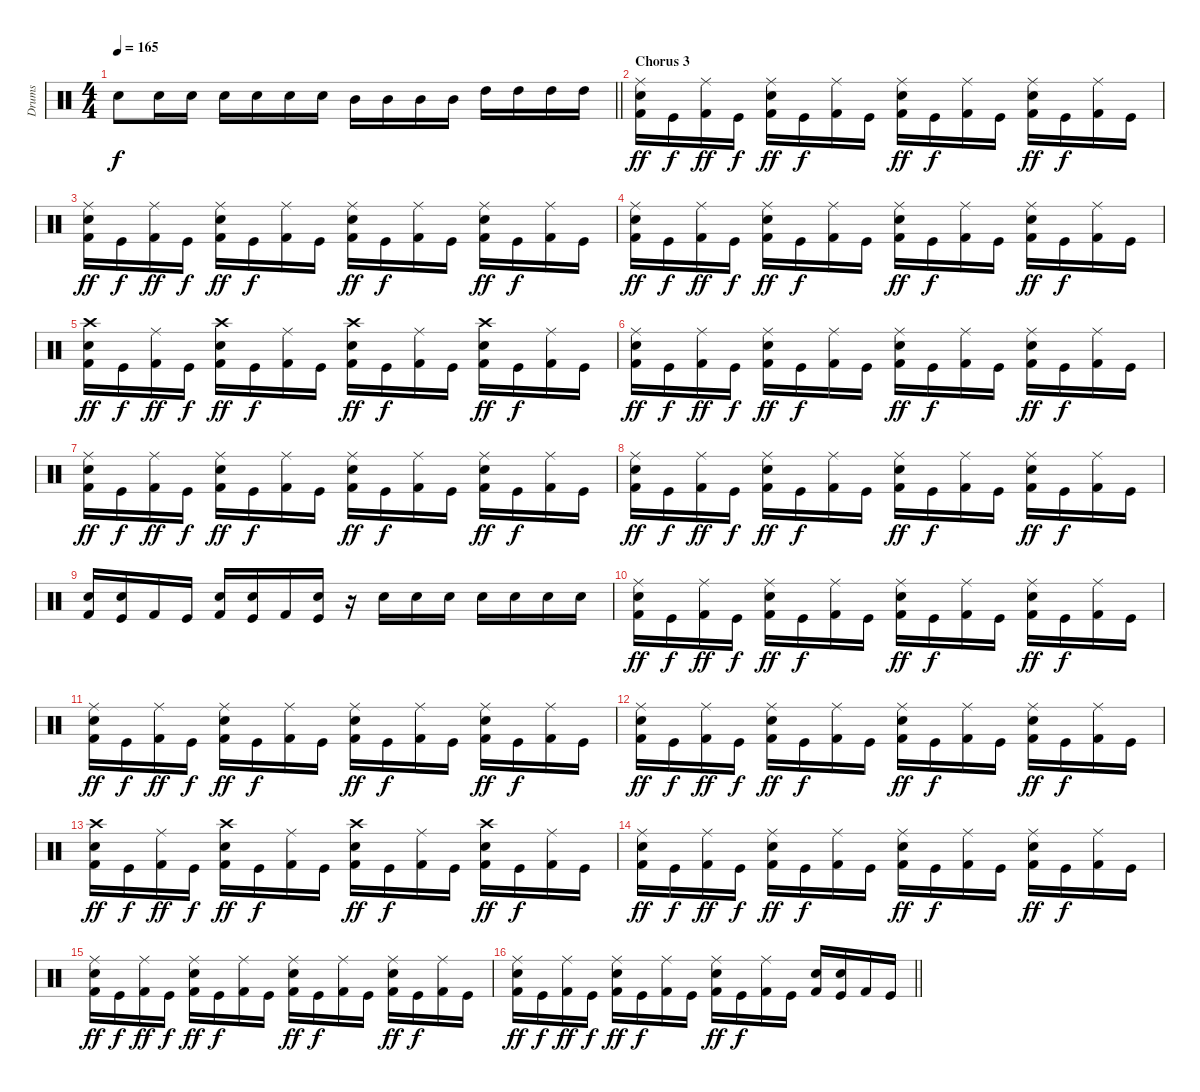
\track ("Drums" "Drums") {instrument percussion}
\staff {score}
\articulation defaults
\ts (4 4)
\tempo 165
\clef neutral
\barLineRight lightlight
\ks c "Electric Snare (hit)".8{dy f} "Electric Snare (hit)".16 "Electric Snare (hit)".16 "Electric Snare (hit)".16 "Electric Snare (hit)".16 "Electric Snare (hit)".16 "Electric Snare (hit)".16 "Mid Tom (hit)".16 "Mid Tom (hit)".16 "Mid Tom (hit)".16 "Mid Tom (hit)".16 "High Tom (hit)".16 "High Tom (hit)".16 "High Tom (hit)".16 "High Tom (hit)".16
|
\section ("" "Chorus 3")
("Ride (middle)" "Snare (hit) 2" "Kick (hit) 2").16{dy ff} "Kick (hit)".16{dy f} ("Ride (middle)" "Kick (hit) 2").16{dy ff} "Kick (hit)".16{dy f} ("Ride (middle)" "Snare (hit) 2" "Kick (hit) 2").16{dy ff} "Kick (hit)".16{dy f} ("Ride (middle)" "Kick (hit) 2").16 "Kick (hit)".16 ("Ride (middle)" "Snare (hit) 2" "Kick (hit) 2").16{dy ff} "Kick (hit)".16{dy f} ("Ride (middle)" "Kick (hit) 2").16 "Kick (hit)".16 ("Ride (middle)" "Snare (hit) 2" "Kick (hit) 2").16{dy ff} "Kick (hit)".16{dy f} ("Ride (middle)" "Kick (hit) 2").16 "Kick (hit)".16 |
("Ride (middle)" "Snare (hit) 2" "Kick (hit) 2").16{dy ff} "Kick (hit)".16{dy f} ("Ride (middle)" "Kick (hit) 2").16{dy ff} "Kick (hit)".16{dy f} ("Ride (middle)" "Snare (hit) 2" "Kick (hit) 2").16{dy ff} "Kick (hit)".16{dy f} ("Ride (middle)" "Kick (hit) 2").16 "Kick (hit)".16 ("Ride (middle)" "Snare (hit) 2" "Kick (hit) 2").16{dy ff} "Kick (hit)".16{dy f} ("Ride (middle)" "Kick (hit) 2").16 "Kick (hit)".16 ("Ride (middle)" "Snare (hit) 2" "Kick (hit) 2").16{dy ff} "Kick (hit)".16{dy f} ("Ride (middle)" "Kick (hit) 2").16 "Kick (hit)".16 |
("Ride (middle)" "Snare (hit) 2" "Kick (hit) 2").16{dy ff} "Kick (hit)".16{dy f} ("Ride (middle)" "Kick (hit) 2").16{dy ff} "Kick (hit)".16{dy f} ("Ride (middle)" "Snare (hit) 2" "Kick (hit) 2").16{dy ff} "Kick (hit)".16{dy f} ("Ride (middle)" "Kick (hit) 2").16 "Kick (hit)".16 ("Ride (middle)" "Snare (hit) 2" "Kick (hit) 2").16{dy ff} "Kick (hit)".16{dy f} ("Ride (middle)" "Kick (hit) 2").16 "Kick (hit)".16 ("Ride (middle)" "Snare (hit) 2" "Kick (hit) 2").16{dy ff} "Kick (hit)".16{dy f} ("Ride (middle)" "Kick (hit) 2").16 "Kick (hit)".16 |
("Crash high (hit)" "Snare (hit) 2" "Kick (hit) 2").16{dy ff} "Kick (hit)".16{dy f} ("Ride (middle)" "Kick (hit) 2").16{dy ff} "Kick (hit)".16{dy f} ("Crash high (hit)" "Snare (hit) 2" "Kick (hit) 2").16{dy ff} "Kick (hit)".16{dy f} ("Ride (middle)" "Kick (hit) 2").16 "Kick (hit)".16 ("Crash high (hit)" "Snare (hit) 2" "Kick (hit) 2").16{dy ff} "Kick (hit)".16{dy f} ("Ride (middle)" "Kick (hit) 2").16 "Kick (hit)".16 ("Crash high (hit)" "Snare (hit) 2" "Kick (hit) 2").16{dy ff} "Kick (hit)".16{dy f} ("Ride (middle)" "Kick (hit) 2").16 "Kick (hit)".16 |
("Ride (middle)" "Snare (hit) 2" "Kick (hit) 2").16{dy ff} "Kick (hit)".16{dy f} ("Ride (middle)" "Kick (hit) 2").16{dy ff} "Kick (hit)".16{dy f} ("Ride (middle)" "Snare (hit) 2" "Kick (hit) 2").16{dy ff} "Kick (hit)".16{dy f} ("Ride (middle)" "Kick (hit) 2").16 "Kick (hit)".16 ("Ride (middle)" "Snare (hit) 2" "Kick (hit) 2").16{dy ff} "Kick (hit)".16{dy f} ("Ride (middle)" "Kick (hit) 2").16 "Kick (hit)".16 ("Ride (middle)" "Snare (hit) 2" "Kick (hit) 2").16{dy ff} "Kick (hit)".16{dy f} ("Ride (middle)" "Kick (hit) 2").16 "Kick (hit)".16 |
("Ride (middle)" "Snare (hit) 2" "Kick (hit) 2").16{dy ff} "Kick (hit)".16{dy f} ("Ride (middle)" "Kick (hit) 2").16{dy ff} "Kick (hit)".16{dy f} ("Ride (middle)" "Snare (hit) 2" "Kick (hit) 2").16{dy ff} "Kick (hit)".16{dy f} ("Ride (middle)" "Kick (hit) 2").16 "Kick (hit)".16 ("Ride (middle)" "Snare (hit) 2" "Kick (hit) 2").16{dy ff} "Kick (hit)".16{dy f} ("Ride (middle)" "Kick (hit) 2").16 "Kick (hit)".16 ("Ride (middle)" "Snare (hit) 2" "Kick (hit) 2").16{dy ff} "Kick (hit)".16{dy f} ("Ride (middle)" "Kick (hit) 2").16 "Kick (hit)".16 |
("Ride (middle)" "Snare (hit) 2" "Kick (hit) 2").16{dy ff} "Kick (hit)".16{dy f} ("Ride (middle)" "Kick (hit) 2").16{dy ff} "Kick (hit)".16{dy f} ("Ride (middle)" "Snare (hit) 2" "Kick (hit) 2").16{dy ff} "Kick (hit)".16{dy f} ("Ride (middle)" "Kick (hit) 2").16 "Kick (hit)".16 ("Ride (middle)" "Snare (hit) 2" "Kick (hit) 2").16{dy ff} "Kick (hit)".16{dy f} ("Ride (middle)" "Kick (hit) 2").16 "Kick (hit)".16 ("Ride (middle)" "Snare (hit) 2" "Kick (hit) 2").16{dy ff} "Kick (hit)".16{dy f} ("Ride (middle)" "Kick (hit) 2").16 "Kick (hit)".16 |
("Snare (hit) 2" "Kick (hit) 2").16 ("Snare (hit) 2" "Kick (hit)").16 "Kick (hit) 2".16 "Kick (hit)".16 ("Snare (hit) 2" "Kick (hit) 2").16 ("Snare (hit) 2" "Kick (hit)").16 "Kick (hit) 2".16 ("Snare (hit) 2" "Kick (hit)").16 r.16 "Snare (hit) 2".16 "Snare (hit) 2".16 "Snare (hit) 2".16 "Snare (hit) 2".16 "Snare (hit) 2".16 "Snare (hit) 2".16 "Snare (hit) 2".16 |
("Ride (middle)" "Snare (hit) 2" "Kick (hit) 2").16{dy ff} "Kick (hit)".16{dy f} ("Ride (middle)" "Kick (hit) 2").16{dy ff} "Kick (hit)".16{dy f} ("Ride (middle)" "Snare (hit) 2" "Kick (hit) 2").16{dy ff} "Kick (hit)".16{dy f} ("Ride (middle)" "Kick (hit) 2").16 "Kick (hit)".16 ("Ride (middle)" "Snare (hit) 2" "Kick (hit) 2").16{dy ff} "Kick (hit)".16{dy f} ("Ride (middle)" "Kick (hit) 2").16 "Kick (hit)".16 ("Ride (middle)" "Snare (hit) 2" "Kick (hit) 2").16{dy ff} "Kick (hit)".16{dy f} ("Ride (middle)" "Kick (hit) 2").16 "Kick (hit)".16 |
("Ride (middle)" "Snare (hit) 2" "Kick (hit) 2").16{dy ff} "Kick (hit)".16{dy f} ("Ride (middle)" "Kick (hit) 2").16{dy ff} "Kick (hit)".16{dy f} ("Ride (middle)" "Snare (hit) 2" "Kick (hit) 2").16{dy ff} "Kick (hit)".16{dy f} ("Ride (middle)" "Kick (hit) 2").16 "Kick (hit)".16 ("Ride (middle)" "Snare (hit) 2" "Kick (hit) 2").16{dy ff} "Kick (hit)".16{dy f} ("Ride (middle)" "Kick (hit) 2").16 "Kick (hit)".16 ("Ride (middle)" "Snare (hit) 2" "Kick (hit) 2").16{dy ff} "Kick (hit)".16{dy f} ("Ride (middle)" "Kick (hit) 2").16 "Kick (hit)".16 |
("Ride (middle)" "Snare (hit) 2" "Kick (hit) 2").16{dy ff} "Kick (hit)".16{dy f} ("Ride (middle)" "Kick (hit) 2").16{dy ff} "Kick (hit)".16{dy f} ("Ride (middle)" "Snare (hit) 2" "Kick (hit) 2").16{dy ff} "Kick (hit)".16{dy f} ("Ride (middle)" "Kick (hit) 2").16 "Kick (hit)".16 ("Ride (middle)" "Snare (hit) 2" "Kick (hit) 2").16{dy ff} "Kick (hit)".16{dy f} ("Ride (middle)" "Kick (hit) 2").16 "Kick (hit)".16 ("Ride (middle)" "Snare (hit) 2" "Kick (hit) 2").16{dy ff} "Kick (hit)".16{dy f} ("Ride (middle)" "Kick (hit) 2").16 "Kick (hit)".16 |
("Crash high (hit)" "Snare (hit) 2" "Kick (hit) 2").16{dy ff} "Kick (hit)".16{dy f} ("Ride (middle)" "Kick (hit) 2").16{dy ff} "Kick (hit)".16{dy f} ("Crash high (hit)" "Snare (hit) 2" "Kick (hit) 2").16{dy ff} "Kick (hit)".16{dy f} ("Ride (middle)" "Kick (hit) 2").16 "Kick (hit)".16 ("Crash high (hit)" "Snare (hit) 2" "Kick (hit) 2").16{dy ff} "Kick (hit)".16{dy f} ("Ride (middle)" "Kick (hit) 2").16 "Kick (hit)".16 ("Crash high (hit)" "Snare (hit) 2" "Kick (hit) 2").16{dy ff} "Kick (hit)".16{dy f} ("Ride (middle)" "Kick (hit) 2").16 "Kick (hit)".16 |
("Ride (middle)" "Snare (hit) 2" "Kick (hit) 2").16{dy ff} "Kick (hit)".16{dy f} ("Ride (middle)" "Kick (hit) 2").16{dy ff} "Kick (hit)".16{dy f} ("Ride (middle)" "Snare (hit) 2" "Kick (hit) 2").16{dy ff} "Kick (hit)".16{dy f} ("Ride (middle)" "Kick (hit) 2").16 "Kick (hit)".16 ("Ride (middle)" "Snare (hit) 2" "Kick (hit) 2").16{dy ff} "Kick (hit)".16{dy f} ("Ride (middle)" "Kick (hit) 2").16 "Kick (hit)".16 ("Ride (middle)" "Snare (hit) 2" "Kick (hit) 2").16{dy ff} "Kick (hit)".16{dy f} ("Ride (middle)" "Kick (hit) 2").16 "Kick (hit)".16 |
("Ride (middle)" "Snare (hit) 2" "Kick (hit) 2").16{dy ff} "Kick (hit)".16{dy f} ("Ride (middle)" "Kick (hit) 2").16{dy ff} "Kick (hit)".16{dy f} ("Ride (middle)" "Snare (hit) 2" "Kick (hit) 2").16{dy ff} "Kick (hit)".16{dy f} ("Ride (middle)" "Kick (hit) 2").16 "Kick (hit)".16 ("Ride (middle)" "Snare (hit) 2" "Kick (hit) 2").16{dy ff} "Kick (hit)".16{dy f} ("Ride (middle)" "Kick (hit) 2").16 "Kick (hit)".16 ("Ride (middle)" "Snare (hit) 2" "Kick (hit) 2").16{dy ff} "Kick (hit)".16{dy f} ("Ride (middle)" "Kick (hit) 2").16 "Kick (hit)".16 |
\barLineRight lightlight
("Ride (middle)" "Snare (hit) 2" "Kick (hit) 2").16{dy ff} "Kick (hit)".16{dy f} ("Ride (middle)" "Kick (hit) 2").16{dy ff} "Kick (hit)".16{dy f} ("Ride (middle)" "Snare (hit) 2" "Kick (hit) 2").16{dy ff} "Kick (hit)".16{dy f} ("Ride (middle)" "Kick (hit) 2").16 "Kick (hit)".16 ("Ride (middle)" "Snare (hit) 2" "Kick (hit) 2").16{dy ff} "Kick (hit)".16{dy f} ("Ride (middle)" "Kick (hit) 2").16 "Kick (hit)".16 ("Snare (hit) 2" "Kick (hit) 2").16 ("Snare (hit) 2" "Kick (hit)").16 "Kick (hit) 2".16 "Kick (hit)".16
